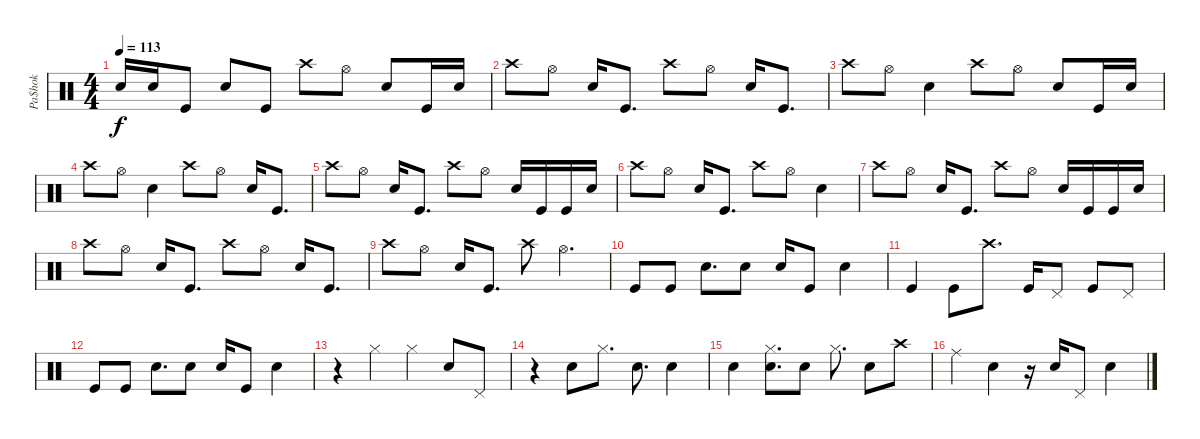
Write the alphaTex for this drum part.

\track ("Pa$hok" "Pa$hok") {instrument percussion}
\staff {score}
\articulation defaults
\ts (4 4)
\tempo 113
\clef neutral
\ks c "Snare (hit) 2".16{dy f} "Snare (hit) 2".16 "Kick (hit)".8 "Snare (hit) 2".8 "Kick (hit)".8 "Crash high (hit)".8 "Hi-Hat (open)".8 "Snare (hit) 2".8 "Kick (hit)".16 "Snare (hit) 2".16
|
"Crash high (hit)".8 "Hi-Hat (open)".8 "Snare (hit) 2".16 "Kick (hit)".8{d} "Crash high (hit)".8 "Hi-Hat (open)".8 "Snare (hit) 2".16 "Kick (hit)".8{d} |
"Crash high (hit)".8 "Hi-Hat (open)".8 "Snare (hit) 2".4 "Crash high (hit)".8 "Hi-Hat (open)".8 "Snare (hit) 2".8 "Kick (hit)".16 "Snare (hit) 2".16 |
"Crash high (hit)".8 "Hi-Hat (open)".8 "Snare (hit) 2".4 "Crash high (hit)".8 "Hi-Hat (open)".8 "Snare (hit) 2".16 "Kick (hit)".8{d} |
"Crash high (hit)".8 "Hi-Hat (open)".8 "Snare (hit) 2".16 "Kick (hit)".8{d} "Crash high (hit)".8 "Hi-Hat (open)".8 "Snare (hit) 2".16 "Kick (hit)".16 "Kick (hit)".16 "Snare (hit) 2".16 |
"Crash high (hit)".8 "Hi-Hat (open)".8 "Snare (hit) 2".16 "Kick (hit)".8{d} "Crash high (hit)".8 "Hi-Hat (open)".8 "Snare (hit) 2".4 |
"Crash high (hit)".8 "Hi-Hat (open)".8 "Snare (hit) 2".16 "Kick (hit)".8{d} "Crash high (hit)".8 "Hi-Hat (open)".8 "Snare (hit) 2".16 "Kick (hit)".16 "Kick (hit)".16 "Snare (hit) 2".16 |
"Crash high (hit)".8 "Hi-Hat (open)".8 "Snare (hit) 2".16 "Kick (hit)".8{d} "Crash high (hit)".8 "Hi-Hat (open)".8 "Snare (hit) 2".16 "Kick (hit)".8{d} |
"Crash high (hit)".8 "Hi-Hat (open)".8 "Snare (hit) 2".16 "Kick (hit)".8{d} "Crash high (hit)".8 "Hi-Hat (open)".4{d} |
"Kick (hit)".8 "Kick (hit)".8 "Snare (hit) 2".8{d} "Snare (hit) 2".8 "Snare (hit) 2".16 "Kick (hit)".8 "Snare (hit) 2".4 |
"Kick (hit)".4 "Kick (hit)".8 "Crash high (hit)".8{d} "Kick (hit)".16 "Pedal Hi-Hat (hit)".8 "Kick (hit)".8 "Pedal Hi-Hat (hit)".8 |
"Kick (hit)".8 "Kick (hit)".8 "Snare (hit) 2".8{d} "Snare (hit) 2".8 "Snare (hit) 2".16 "Kick (hit)".8 "Snare (hit) 2".4 |
r.4 "Hi-Hat (closed)".4 "Hi-Hat (closed)".4 "Snare (hit) 2".8 "Pedal Hi-Hat (hit)".8 |
r.4 "Snare (hit) 2".8 "Hi-Hat (closed)".8{d} "Snare (hit) 2".8{d} "Snare (hit) 2".4 |
"Snare (hit) 2".4 ("Hi-Hat (closed)" "Snare (hit) 2").8{d} "Snare (hit) 2".8 "Hi-Hat (closed)".8{d} "Snare (hit) 2".8 "Crash high (hit)".8 |
"Ride (middle)".4 "Snare (hit) 2".4 r.16 "Snare (hit) 2".16 "Pedal Hi-Hat (hit)".8 "Snare (hit) 2".4
